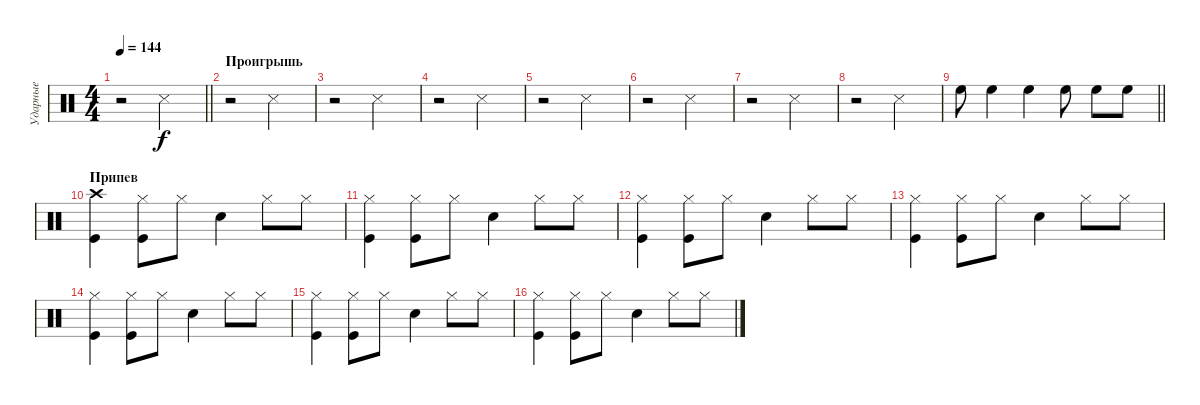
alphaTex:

\track ("Ударные" "Ударные") {instrument percussion}
\staff {score}
\articulation defaults
\ts (4 4)
\tempo 144
\clef neutral
\barLineRight lightlight
\ks c
r.2{dy f} "Snare (side stick) 3".2 |
\section ("" "Проигрышь")
r.2 "Snare (side stick) 3".2 |
r.2 "Snare (side stick) 3".2 |
r.2 "Snare (side stick) 3".2 |
r.2 "Snare (side stick) 3".2 |
r.2 "Snare (side stick) 3".2 |
r.2 "Snare (side stick) 3".2 |
r.2 "Snare (side stick) 3".2 |
\barLineRight lightlight "High Floor Tom (hit)".8 "High Floor Tom (hit)".4 "High Floor Tom (hit)".4 "High Floor Tom (hit)".8 "High Floor Tom (hit)".8 "High Floor Tom (hit)".8
|
\section ("" "Припев")
("Crash high (hit)" "Kick (hit)").4 ("Hi-Hat (closed)" "Kick (hit)").8 "Hi-Hat (closed)".8 "Snare (hit) 2".4 "Hi-Hat (closed)".8 "Hi-Hat (closed)".8 |
("Hi-Hat (closed)" "Kick (hit)").4 ("Hi-Hat (closed)" "Kick (hit)").8 "Hi-Hat (closed)".8 "Snare (hit) 2".4 "Hi-Hat (closed)".8 "Hi-Hat (closed)".8 |
("Hi-Hat (closed)" "Kick (hit)").4 ("Hi-Hat (closed)" "Kick (hit)").8 "Hi-Hat (closed)".8 "Snare (hit) 2".4 "Hi-Hat (closed)".8 "Hi-Hat (closed)".8 |
("Hi-Hat (closed)" "Kick (hit)").4 ("Hi-Hat (closed)" "Kick (hit)").8 "Hi-Hat (closed)".8 "Snare (hit) 2".4 "Hi-Hat (closed)".8 "Hi-Hat (closed)".8 |
("Hi-Hat (closed)" "Kick (hit)").4 ("Hi-Hat (closed)" "Kick (hit)").8 "Hi-Hat (closed)".8 "Snare (hit) 2".4 "Hi-Hat (closed)".8 "Hi-Hat (closed)".8 |
("Hi-Hat (closed)" "Kick (hit)").4 ("Hi-Hat (closed)" "Kick (hit)").8 "Hi-Hat (closed)".8 "Snare (hit) 2".4 "Hi-Hat (closed)".8 "Hi-Hat (closed)".8 |
("Hi-Hat (closed)" "Kick (hit)").4 ("Hi-Hat (closed)" "Kick (hit)").8 "Hi-Hat (closed)".8 "Snare (hit) 2".4 "Hi-Hat (closed)".8 "Hi-Hat (closed)".8
